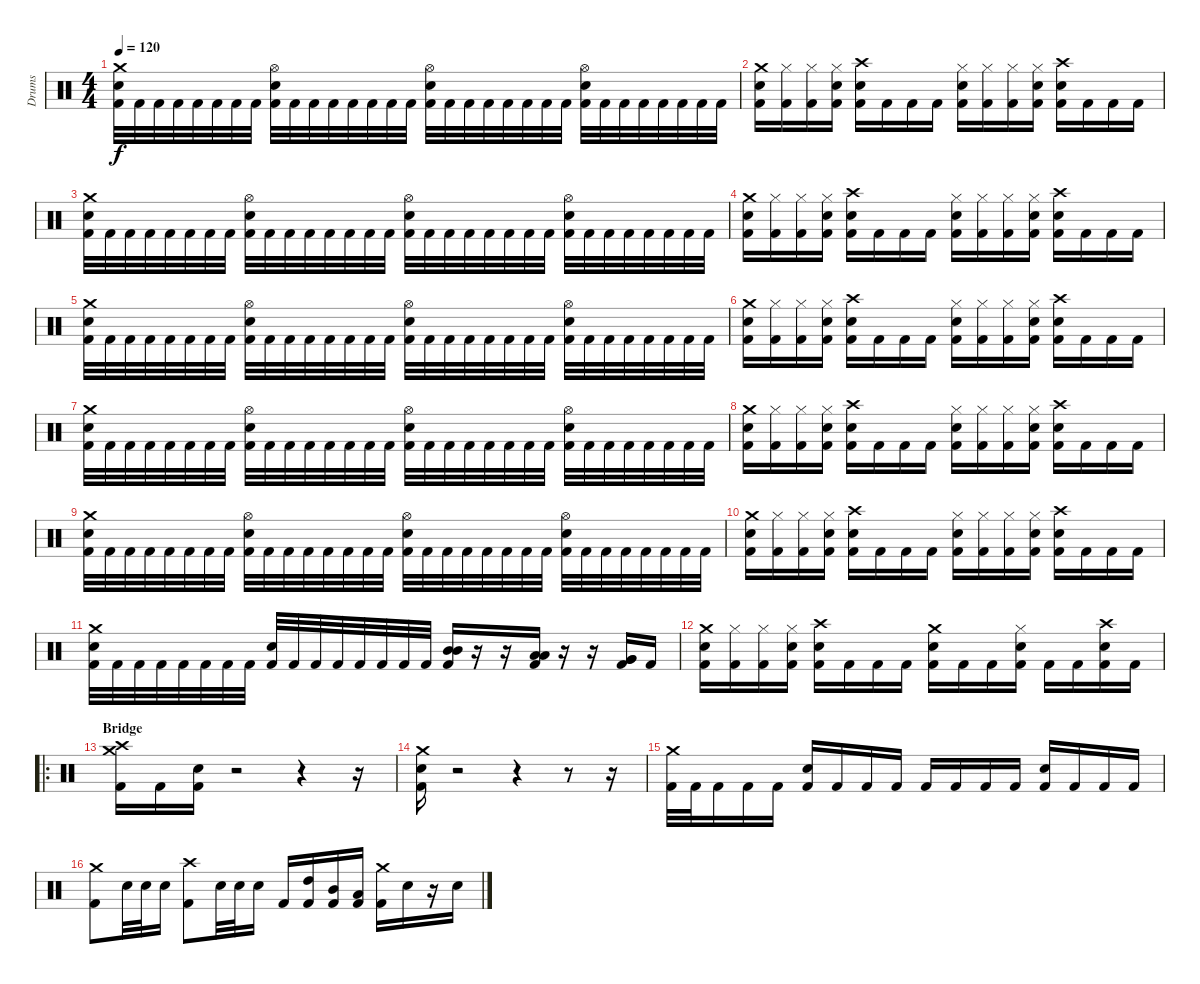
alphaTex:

\track ("Drums" "Drums") {instrument percussion}
\staff {score}
\articulation defaults
\ts (4 4)
\tempo 120
\clef neutral
\ks c
("Crash medium (hit)" "Snare (hit) 2" "Kick (hit) 2").32{dy f} "Kick (hit) 2".32 "Kick (hit) 2".32 "Kick (hit) 2".32 "Kick (hit) 2".32 "Kick (hit) 2".32 "Kick (hit) 2".32 "Kick (hit) 2".32 ("Hi-Hat (open)" "Snare (hit) 2" "Kick (hit) 2").32 "Kick (hit) 2".32 "Kick (hit) 2".32 "Kick (hit) 2".32 "Kick (hit) 2".32 "Kick (hit) 2".32 "Kick (hit) 2".32 "Kick (hit) 2".32 ("Hi-Hat (open)" "Snare (hit) 2" "Kick (hit) 2").32 "Kick (hit) 2".32 "Kick (hit) 2".32 "Kick (hit) 2".32 "Kick (hit) 2".32 "Kick (hit) 2".32 "Kick (hit) 2".32 "Kick (hit) 2".32 ("Hi-Hat (open)" "Snare (hit) 2" "Kick (hit) 2").32 "Kick (hit) 2".32 "Kick (hit) 2".32 "Kick (hit) 2".32 "Kick (hit) 2".32 "Kick (hit) 2".32 "Kick (hit) 2".32 "Kick (hit) 2".32 |
("Crash medium (hit)" "Snare (hit) 2" "Kick (hit) 2").16 ("Hi-Hat (closed)" "Kick (hit) 2").16 ("Hi-Hat (closed)" "Kick (hit) 2").16 ("Hi-Hat (closed)" "Snare (hit) 2" "Kick (hit) 2").16 ("Crash high (hit)" "Snare (hit) 2" "Kick (hit) 2").16 "Kick (hit) 2".16 "Kick (hit) 2".16 "Kick (hit) 2".16 ("Hi-Hat (closed)" "Snare (hit) 2" "Kick (hit) 2").16 ("Hi-Hat (closed)" "Kick (hit) 2").16 ("Hi-Hat (closed)" "Kick (hit) 2").16 ("Hi-Hat (closed)" "Snare (hit) 2" "Kick (hit) 2").16 ("Crash high (hit)" "Snare (hit) 2" "Kick (hit) 2").16 "Kick (hit) 2".16 "Kick (hit) 2".16 "Kick (hit) 2".16 |
("Crash medium (hit)" "Snare (hit) 2" "Kick (hit) 2").32 "Kick (hit) 2".32 "Kick (hit) 2".32 "Kick (hit) 2".32 "Kick (hit) 2".32 "Kick (hit) 2".32 "Kick (hit) 2".32 "Kick (hit) 2".32 ("Hi-Hat (open)" "Snare (hit) 2" "Kick (hit) 2").32 "Kick (hit) 2".32 "Kick (hit) 2".32 "Kick (hit) 2".32 "Kick (hit) 2".32 "Kick (hit) 2".32 "Kick (hit) 2".32 "Kick (hit) 2".32 ("Hi-Hat (open)" "Snare (hit) 2" "Kick (hit) 2").32 "Kick (hit) 2".32 "Kick (hit) 2".32 "Kick (hit) 2".32 "Kick (hit) 2".32 "Kick (hit) 2".32 "Kick (hit) 2".32 "Kick (hit) 2".32 ("Hi-Hat (open)" "Snare (hit) 2" "Kick (hit) 2").32 "Kick (hit) 2".32 "Kick (hit) 2".32 "Kick (hit) 2".32 "Kick (hit) 2".32 "Kick (hit) 2".32 "Kick (hit) 2".32 "Kick (hit) 2".32 |
("Crash medium (hit)" "Snare (hit) 2" "Kick (hit) 2").16 ("Hi-Hat (closed)" "Kick (hit) 2").16 ("Hi-Hat (closed)" "Kick (hit) 2").16 ("Hi-Hat (closed)" "Snare (hit) 2" "Kick (hit) 2").16 ("Crash high (hit)" "Snare (hit) 2" "Kick (hit) 2").16 "Kick (hit) 2".16 "Kick (hit) 2".16 "Kick (hit) 2".16 ("Hi-Hat (closed)" "Snare (hit) 2" "Kick (hit) 2").16 ("Hi-Hat (closed)" "Kick (hit) 2").16 ("Hi-Hat (closed)" "Kick (hit) 2").16 ("Hi-Hat (closed)" "Snare (hit) 2" "Kick (hit) 2").16 ("Crash high (hit)" "Snare (hit) 2" "Kick (hit) 2").16 "Kick (hit) 2".16 "Kick (hit) 2".16 "Kick (hit) 2".16 |
("Crash medium (hit)" "Snare (hit) 2" "Kick (hit) 2").32 "Kick (hit) 2".32 "Kick (hit) 2".32 "Kick (hit) 2".32 "Kick (hit) 2".32 "Kick (hit) 2".32 "Kick (hit) 2".32 "Kick (hit) 2".32 ("Hi-Hat (open)" "Snare (hit) 2" "Kick (hit) 2").32 "Kick (hit) 2".32 "Kick (hit) 2".32 "Kick (hit) 2".32 "Kick (hit) 2".32 "Kick (hit) 2".32 "Kick (hit) 2".32 "Kick (hit) 2".32 ("Hi-Hat (open)" "Snare (hit) 2" "Kick (hit) 2").32 "Kick (hit) 2".32 "Kick (hit) 2".32 "Kick (hit) 2".32 "Kick (hit) 2".32 "Kick (hit) 2".32 "Kick (hit) 2".32 "Kick (hit) 2".32 ("Hi-Hat (open)" "Snare (hit) 2" "Kick (hit) 2").32 "Kick (hit) 2".32 "Kick (hit) 2".32 "Kick (hit) 2".32 "Kick (hit) 2".32 "Kick (hit) 2".32 "Kick (hit) 2".32 "Kick (hit) 2".32 |
("Crash medium (hit)" "Snare (hit) 2" "Kick (hit) 2").16 ("Hi-Hat (closed)" "Kick (hit) 2").16 ("Hi-Hat (closed)" "Kick (hit) 2").16 ("Hi-Hat (closed)" "Snare (hit) 2" "Kick (hit) 2").16 ("Crash high (hit)" "Snare (hit) 2" "Kick (hit) 2").16 "Kick (hit) 2".16 "Kick (hit) 2".16 "Kick (hit) 2".16 ("Hi-Hat (closed)" "Snare (hit) 2" "Kick (hit) 2").16 ("Hi-Hat (closed)" "Kick (hit) 2").16 ("Hi-Hat (closed)" "Kick (hit) 2").16 ("Hi-Hat (closed)" "Snare (hit) 2" "Kick (hit) 2").16 ("Crash high (hit)" "Snare (hit) 2" "Kick (hit) 2").16 "Kick (hit) 2".16 "Kick (hit) 2".16 "Kick (hit) 2".16 |
("Crash medium (hit)" "Snare (hit) 2" "Kick (hit) 2").32 "Kick (hit) 2".32 "Kick (hit) 2".32 "Kick (hit) 2".32 "Kick (hit) 2".32 "Kick (hit) 2".32 "Kick (hit) 2".32 "Kick (hit) 2".32 ("Hi-Hat (open)" "Snare (hit) 2" "Kick (hit) 2").32 "Kick (hit) 2".32 "Kick (hit) 2".32 "Kick (hit) 2".32 "Kick (hit) 2".32 "Kick (hit) 2".32 "Kick (hit) 2".32 "Kick (hit) 2".32 ("Hi-Hat (open)" "Snare (hit) 2" "Kick (hit) 2").32 "Kick (hit) 2".32 "Kick (hit) 2".32 "Kick (hit) 2".32 "Kick (hit) 2".32 "Kick (hit) 2".32 "Kick (hit) 2".32 "Kick (hit) 2".32 ("Hi-Hat (open)" "Snare (hit) 2" "Kick (hit) 2").32 "Kick (hit) 2".32 "Kick (hit) 2".32 "Kick (hit) 2".32 "Kick (hit) 2".32 "Kick (hit) 2".32 "Kick (hit) 2".32 "Kick (hit) 2".32 |
("Crash medium (hit)" "Snare (hit) 2" "Kick (hit) 2").16 ("Hi-Hat (closed)" "Kick (hit) 2").16 ("Hi-Hat (closed)" "Kick (hit) 2").16 ("Hi-Hat (closed)" "Snare (hit) 2" "Kick (hit) 2").16 ("Crash high (hit)" "Snare (hit) 2" "Kick (hit) 2").16 "Kick (hit) 2".16 "Kick (hit) 2".16 "Kick (hit) 2".16 ("Hi-Hat (closed)" "Snare (hit) 2" "Kick (hit) 2").16 ("Hi-Hat (closed)" "Kick (hit) 2").16 ("Hi-Hat (closed)" "Kick (hit) 2").16 ("Hi-Hat (closed)" "Snare (hit) 2" "Kick (hit) 2").16 ("Crash high (hit)" "Snare (hit) 2" "Kick (hit) 2").16 "Kick (hit) 2".16 "Kick (hit) 2".16 "Kick (hit) 2".16 |
("Crash medium (hit)" "Snare (hit) 2" "Kick (hit) 2").32 "Kick (hit) 2".32 "Kick (hit) 2".32 "Kick (hit) 2".32 "Kick (hit) 2".32 "Kick (hit) 2".32 "Kick (hit) 2".32 "Kick (hit) 2".32 ("Hi-Hat (open)" "Snare (hit) 2" "Kick (hit) 2").32 "Kick (hit) 2".32 "Kick (hit) 2".32 "Kick (hit) 2".32 "Kick (hit) 2".32 "Kick (hit) 2".32 "Kick (hit) 2".32 "Kick (hit) 2".32 ("Hi-Hat (open)" "Snare (hit) 2" "Kick (hit) 2").32 "Kick (hit) 2".32 "Kick (hit) 2".32 "Kick (hit) 2".32 "Kick (hit) 2".32 "Kick (hit) 2".32 "Kick (hit) 2".32 "Kick (hit) 2".32 ("Hi-Hat (open)" "Snare (hit) 2" "Kick (hit) 2").32 "Kick (hit) 2".32 "Kick (hit) 2".32 "Kick (hit) 2".32 "Kick (hit) 2".32 "Kick (hit) 2".32 "Kick (hit) 2".32 "Kick (hit) 2".32 |
("Crash medium (hit)" "Snare (hit) 2" "Kick (hit) 2").16 ("Hi-Hat (closed)" "Kick (hit) 2").16 ("Hi-Hat (closed)" "Kick (hit) 2").16 ("Hi-Hat (closed)" "Snare (hit) 2" "Kick (hit) 2").16 ("Crash high (hit)" "Snare (hit) 2" "Kick (hit) 2").16 "Kick (hit) 2".16 "Kick (hit) 2".16 "Kick (hit) 2".16 ("Hi-Hat (closed)" "Snare (hit) 2" "Kick (hit) 2").16 ("Hi-Hat (closed)" "Kick (hit) 2").16 ("Hi-Hat (closed)" "Kick (hit) 2").16 ("Hi-Hat (closed)" "Snare (hit) 2" "Kick (hit) 2").16 ("Crash high (hit)" "Snare (hit) 2" "Kick (hit) 2").16 "Kick (hit) 2".16 "Kick (hit) 2".16 "Kick (hit) 2".16 |
("Crash medium (hit)" "Snare (hit) 2" "Kick (hit) 2").32 "Kick (hit) 2".32 "Kick (hit) 2".32 "Kick (hit) 2".32 "Kick (hit) 2".32 "Kick (hit) 2".32 "Kick (hit) 2".32 "Kick (hit) 2".32 ("Snare (hit) 2" "Kick (hit) 2").32 "Kick (hit) 2".32 "Kick (hit) 2".32 "Kick (hit) 2".32 "Kick (hit) 2".32 "Kick (hit) 2".32 "Kick (hit) 2".32 "Kick (hit) 2".32 ("Mid Tom (hit)" "Mid Tom (hit)" "Kick (hit) 2").16 r.16 r.16 ("Low Tom (hit)" "Low Tom (hit)" "Kick (hit) 2").16 r.16 r.16 ("Very Low Tom (hit)" "Very Low Tom (hit)" "Kick (hit) 2").16 "Kick (hit) 2".16 |
("Crash medium (hit)" "Snare (hit) 2" "Kick (hit) 2").16 ("Hi-Hat (closed)" "Kick (hit) 2").16 ("Hi-Hat (closed)" "Kick (hit) 2").16 ("Hi-Hat (closed)" "Snare (hit) 2" "Kick (hit) 2").16 ("Crash high (hit)" "Snare (hit) 2" "Kick (hit) 2").16 "Kick (hit) 2".16 "Kick (hit) 2".16 "Kick (hit) 2".16 ("Crash medium (hit)" "Snare (hit) 2" "Kick (hit) 2").16 "Kick (hit) 2".16 "Kick (hit) 2".16 ("Hi-Hat (closed)" "Snare (hit) 2" "Kick (hit) 2").16 "Kick (hit) 2".16 "Kick (hit) 2".16 ("Crash high (hit)" "Snare (hit) 2" "Kick (hit) 2").16 "Kick (hit) 2".16 |
\ro
\section ("" "Bridge")
("Crash medium (hit)" "Crash high (hit)" "Kick (hit) 2").16 "Kick (hit) 2".16 ("Snare (hit) 2" "Kick (hit) 2").16 r.2 r.4 r.16 |
("Crash medium (hit)" "Snare (hit) 2" "Kick (hit) 2").16 r.2 r.4 r.8 r.16 |
("Crash medium (hit)" "Kick (hit) 2").32 "Kick (hit) 2".32 "Kick (hit) 2".16 "Kick (hit) 2".16 "Kick (hit) 2".16 ("Snare (hit) 2" "Kick (hit) 2").16 "Kick (hit) 2".16 "Kick (hit) 2".16 "Kick (hit) 2".16 "Kick (hit) 2".16 "Kick (hit) 2".16 "Kick (hit) 2".16 "Kick (hit) 2".16 ("Snare (hit) 2" "Kick (hit) 2").16 "Kick (hit) 2".16 "Kick (hit) 2".16 "Kick (hit) 2".16 |
("Crash medium (hit)" "Kick (hit) 2").8 "Snare (hit) 2".32 "Snare (hit) 2".32 "Snare (hit) 2".16 ("Crash high (hit)" "Kick (hit) 2").8 "Snare (hit) 2".32 "Snare (hit) 2".32 "Snare (hit) 2".16 "Kick (hit) 2".16 ("High Tom (hit)" "Kick (hit) 2").16 ("Mid Tom (hit)" "Kick (hit) 2").16 ("Low Tom (hit)" "Kick (hit) 2").16 ("Crash medium (hit)" "Kick (hit) 2").16 "Snare (hit) 2".16 r.16 "Snare (hit) 2".16
